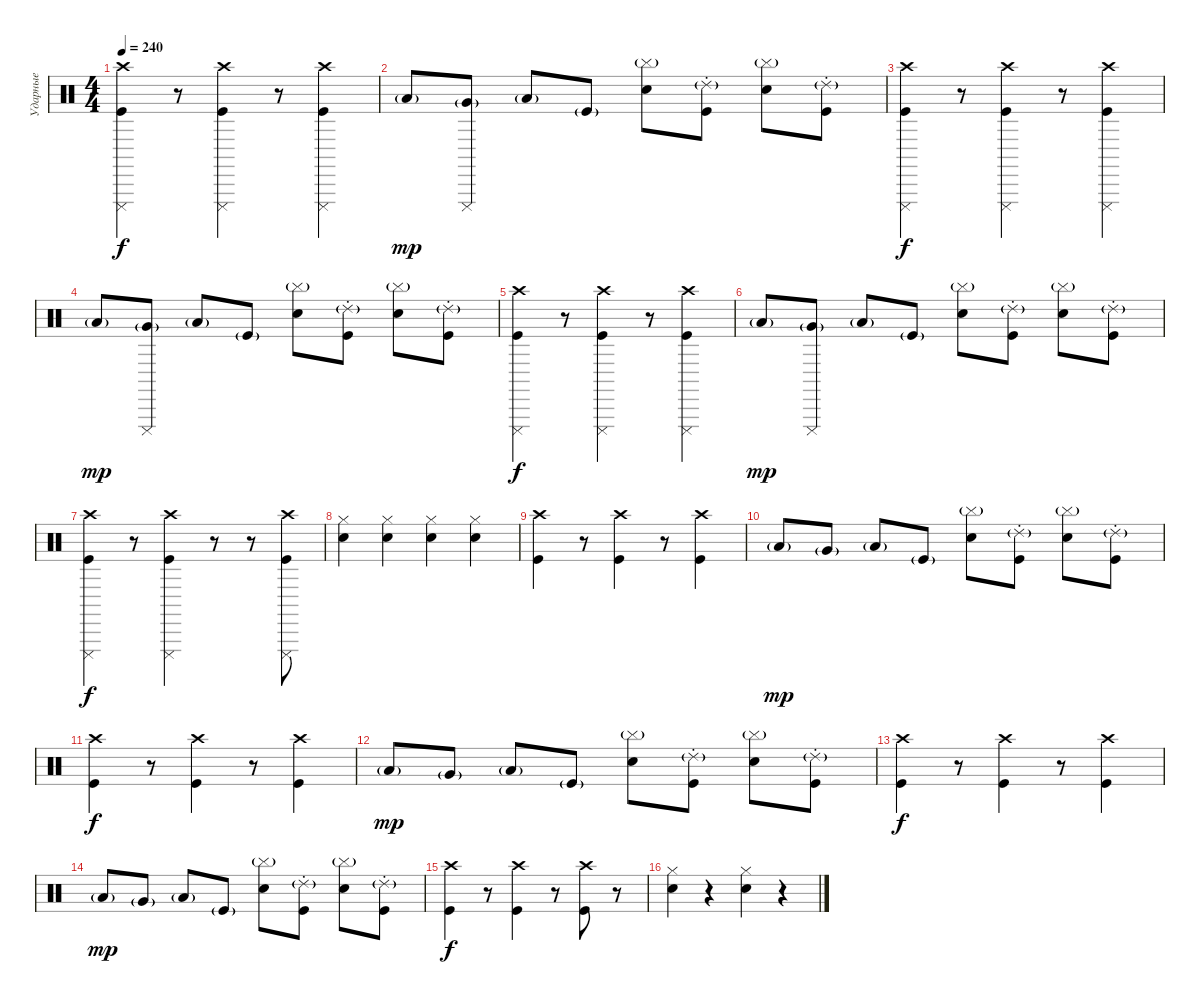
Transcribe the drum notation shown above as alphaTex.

\track ("Ударные" "Ударные") {instrument percussion}
\staff {score}
\articulation defaults
\ts (4 4)
\tempo 240
\clef neutral
\ks c
("Crash high (hit)" "Cuica (mute)" "Kick (hit)").4{dy f} r.8 ("Crash high (hit)" "Cuica (mute)" "Kick (hit)").4 r.8 ("Crash high (hit)" "Cuica (mute)" "Kick (hit)").4 |
"Low Tom (hit)"{g}.8{dy mp} ("Cuica (mute)" "Very Low Tom (hit)"{g}).8 "Low Floor Tom (hit)"{g}.8 "Kick (hit)"{g}.8 ("Cymbal (hit)"{g} "Snare (hit) 2").8 ("Ride (choke) 2"{g} "Kick (hit)").8 ("Cymbal (hit)"{g} "Snare (hit) 2").8 ("Ride (choke) 2"{g} "Kick (hit)").8 |
("Crash high (hit)" "Cuica (mute)" "Kick (hit)").4{dy f} r.8 ("Crash high (hit)" "Cuica (mute)" "Kick (hit)").4 r.8 ("Crash high (hit)" "Cuica (mute)" "Kick (hit)").4 |
"Low Tom (hit)"{g}.8{dy mp} ("Cuica (mute)" "Very Low Tom (hit)"{g}).8 "Low Floor Tom (hit)"{g}.8 "Kick (hit)"{g}.8 ("Cymbal (hit)"{g} "Snare (hit) 2").8 ("Ride (choke) 2"{g} "Kick (hit)").8 ("Cymbal (hit)"{g} "Snare (hit) 2").8 ("Ride (choke) 2"{g} "Kick (hit)").8 |
("Crash high (hit)" "Cuica (mute)" "Kick (hit)").4{dy f} r.8 ("Crash high (hit)" "Cuica (mute)" "Kick (hit)").4 r.8 ("Crash high (hit)" "Cuica (mute)" "Kick (hit)").4 |
"Low Tom (hit)"{g}.8{dy mp} ("Cuica (mute)" "Very Low Tom (hit)"{g}).8 "Low Floor Tom (hit)"{g}.8 "Kick (hit)"{g}.8 ("Cymbal (hit)"{g} "Snare (hit) 2").8 ("Ride (choke) 2"{g} "Kick (hit)").8 ("Cymbal (hit)"{g} "Snare (hit) 2").8 ("Ride (choke) 2"{g} "Kick (hit)").8 |
("Crash high (hit)" "Cuica (mute)" "Kick (hit)").4{dy f} r.8 ("Crash high (hit)" "Cuica (mute)" "Kick (hit)").4 r.8 r.8 ("Crash high (hit)" "Cuica (mute)" "Kick (hit)").8 |
("Hi-Hat (closed)" "Snare (hit) 2").4 ("Hi-Hat (closed)" "Snare (hit) 2").4 ("Hi-Hat (closed)" "Snare (hit) 2").4 ("Hi-Hat (closed)" "Snare (hit) 2").4 |
("Crash high (hit)" "Kick (hit)").4 r.8 ("Crash high (hit)" "Kick (hit)").4 r.8 ("Crash high (hit)" "Kick (hit)").4 |
"Low Tom (hit)"{g}.8{dy mp} "Very Low Tom (hit)"{g}.8 "Low Floor Tom (hit)"{g}.8 "Kick (hit)"{g}.8 ("Cymbal (hit)"{g} "Snare (hit) 2").8 ("Ride (choke) 2"{g} "Kick (hit)").8 ("Cymbal (hit)"{g} "Snare (hit) 2").8 ("Ride (choke) 2"{g} "Kick (hit)").8 |
("Crash high (hit)" "Kick (hit)").4{dy f} r.8 ("Crash high (hit)" "Kick (hit)").4 r.8 ("Crash high (hit)" "Kick (hit)").4 |
"Low Tom (hit)"{g}.8{dy mp} "Very Low Tom (hit)"{g}.8 "Low Floor Tom (hit)"{g}.8 "Kick (hit)"{g}.8 ("Cymbal (hit)"{g} "Snare (hit) 2").8 ("Ride (choke) 2"{g} "Kick (hit)").8 ("Cymbal (hit)"{g} "Snare (hit) 2").8 ("Ride (choke) 2"{g} "Kick (hit)").8 |
("Crash high (hit)" "Kick (hit)").4{dy f} r.8 ("Crash high (hit)" "Kick (hit)").4 r.8 ("Crash high (hit)" "Kick (hit)").4 |
"Low Tom (hit)"{g}.8{dy mp} "Very Low Tom (hit)"{g}.8 "Low Floor Tom (hit)"{g}.8 "Kick (hit)"{g}.8 ("Cymbal (hit)"{g} "Snare (hit) 2").8 ("Ride (choke) 2"{g} "Kick (hit)").8 ("Cymbal (hit)"{g} "Snare (hit) 2").8 ("Ride (choke) 2"{g} "Kick (hit)").8 |
("Crash high (hit)" "Kick (hit)").4{dy f} r.8 ("Crash high (hit)" "Kick (hit)").4 r.8 ("Crash high (hit)" "Kick (hit)").8 r.8 |
("Hi-Hat (closed)" "Snare (hit) 2").4 r.4 ("Hi-Hat (closed)" "Snare (hit) 2").4 r.4
